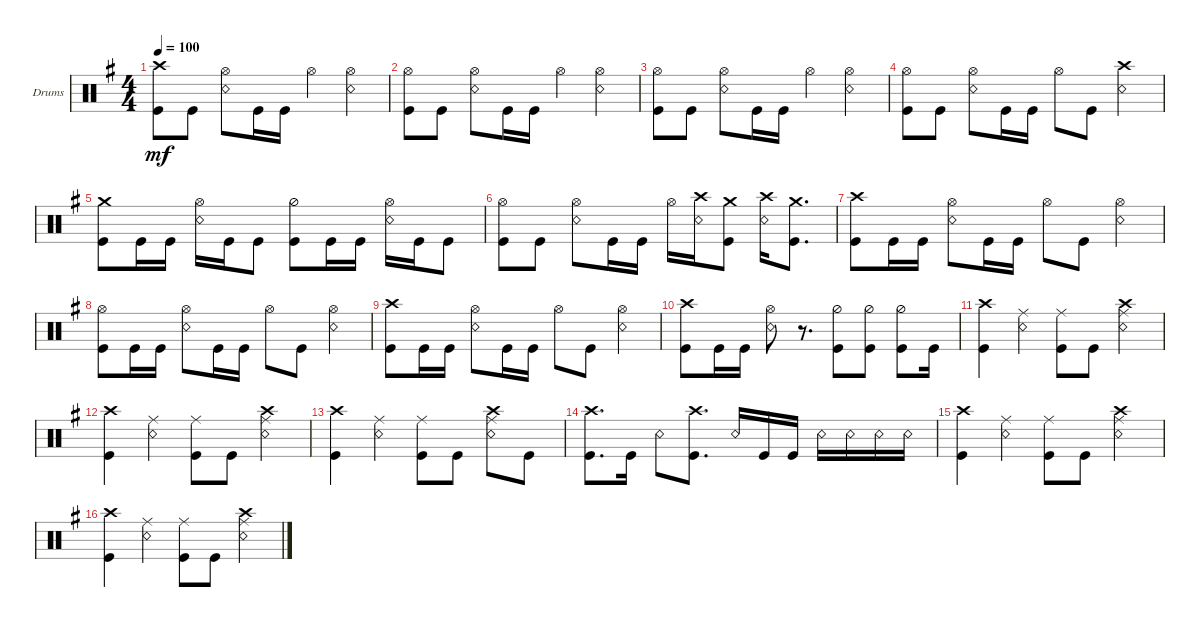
\defaultSystemsLayout 4
\bracketExtendMode groupsimilarinstruments
\firstSystemTrackNameOrientation horizontal
\otherSystemsTrackNameOrientation horizontal
\track ("Drumkit" "Drums") {instrument percussion}
\staff {score}
\articulation defaults
\ts (4 4)
\tempo 100
\clef neutral
\ks eminor
("Kick (hit)" "Crash high (hit)").8{dy mf} "Kick (hit)".8 ("Hi-Hat (open)" "Snare (rim shot)").8 "Kick (hit)".16 "Kick (hit)".16 "Hi-Hat (open)".4 ("Hi-Hat (open)" "Snare (rim shot)").4 |
("Kick (hit)" "Hi-Hat (open)").8 "Kick (hit)".8 ("Hi-Hat (open)" "Snare (rim shot)").8 "Kick (hit)".16 "Kick (hit)".16 "Hi-Hat (open)".4 ("Hi-Hat (open)" "Snare (rim shot)").4 |
("Kick (hit)" "Hi-Hat (open)").8 "Kick (hit)".8 ("Hi-Hat (open)" "Snare (rim shot)").8 "Kick (hit)".16 "Kick (hit)".16 "Hi-Hat (open)".4 ("Hi-Hat (open)" "Snare (rim shot)").4 |
("Kick (hit)" "Hi-Hat (open)").8 "Kick (hit)".8 ("Hi-Hat (open)" "Snare (rim shot)").8 "Kick (hit)".16 "Kick (hit)".16 "Hi-Hat (open)".8 "Kick (hit)".8 ("Snare (rim shot)" "Crash high (hit)").4 |
("Crash medium (hit)" "Kick (hit)").8 "Kick (hit)".16 "Kick (hit)".16 ("Snare (rim shot)" "Hi-Hat (open)").16 "Kick (hit)".16 "Kick (hit)".8 ("Kick (hit)" "Hi-Hat (half)").8 "Kick (hit)".16 "Kick (hit)".16 ("Snare (rim shot)" "Hi-Hat (open)").16 "Kick (hit)".16 "Kick (hit)".8 |
("Kick (hit)" "Hi-Hat (open)").8 "Kick (hit)".8 ("Hi-Hat (open)" "Snare (rim shot)").8 "Kick (hit)".16 "Kick (hit)".16 "Hi-Hat (open)".16 ("Snare (rim shot)" "Crash high (hit)").16 ("Kick (hit)" "Crash medium (hit)").8 ("Snare (rim shot)" "Crash high (hit)").16 ("Kick (hit)" "Crash medium (hit)").8{d} |
("Kick (hit)" "Crash high (hit)").8 "Kick (hit)".16 "Kick (hit)".16 ("Hi-Hat (open)" "Snare (rim shot)").8 "Kick (hit)".16 "Kick (hit)".16 "Hi-Hat (open)".8 "Kick (hit)".8 ("Hi-Hat (open)" "Snare (rim shot)").4 |
("Kick (hit)" "Hi-Hat (open)").8 "Kick (hit)".16 "Kick (hit)".16 ("Hi-Hat (open)" "Snare (rim shot)").8 "Kick (hit)".16 "Kick (hit)".16 "Hi-Hat (open)".8 "Kick (hit)".8 ("Hi-Hat (open)" "Snare (rim shot)").4 |
("Kick (hit)" "Crash high (hit)").8 "Kick (hit)".16 "Kick (hit)".16 ("Hi-Hat (open)" "Snare (rim shot)").8 "Kick (hit)".16 "Kick (hit)".16 "Hi-Hat (open)".8 "Kick (hit)".8 ("Hi-Hat (open)" "Snare (rim shot)").4 |
("Kick (hit)" "Crash high (hit)").8 "Kick (hit)".16 "Kick (hit)".16 ("Hi-Hat (open)" "Snare (rim shot)").8 r.8{d} ("Kick (hit)" "Hi-Hat (half)").8 ("Kick (hit)" "Hi-Hat (half)").8 ("Kick (hit)" "Hi-Hat (half)").8 "Kick (hit)".16 |
("Kick (hit)" "Crash high (hit)").4 ("Ride (middle)" "Snare (rim shot)").4 ("Kick (hit)" "Ride (middle)").8 "Kick (hit)".8 ("Ride (middle)" "Snare (rim shot)" "Crash high (hit)").4 |
("Kick (hit)" "Crash high (hit)").4 ("Ride (middle)" "Snare (rim shot)").4 ("Kick (hit)" "Ride (middle)").8 "Kick (hit)".8 ("Ride (middle)" "Snare (rim shot)" "Crash high (hit)").4 |
("Kick (hit)" "Crash high (hit)").4 ("Ride (middle)" "Snare (rim shot)").4 ("Kick (hit)" "Ride (middle)").8 "Kick (hit)".8 ("Ride (middle)" "Snare (rim shot)" "Crash high (hit)").8 "Kick (hit)".8 |
("Kick (hit)" "Crash high (hit)").8{d} "Kick (hit)".16 "Snare (rim shot)".8 ("Kick (hit)" "Crash high (hit)").8{d} "Snare (rim shot)".16 "Kick (hit)".16 "Kick (hit)".16 "Snare (rim shot)".16 "Snare (rim shot)".16 "Snare (rim shot)".16 "Snare (rim shot)".16 |
("Kick (hit)" "Crash high (hit)").4 ("Ride (middle)" "Snare (rim shot)").4 ("Kick (hit)" "Ride (middle)").8 "Kick (hit)".8 ("Ride (middle)" "Snare (rim shot)" "Crash high (hit)").4 |
("Kick (hit)" "Crash high (hit)").4 ("Ride (middle)" "Snare (rim shot)").4 ("Kick (hit)" "Ride (middle)").8 "Kick (hit)".8 ("Ride (middle)" "Snare (rim shot)" "Crash high (hit)").4
